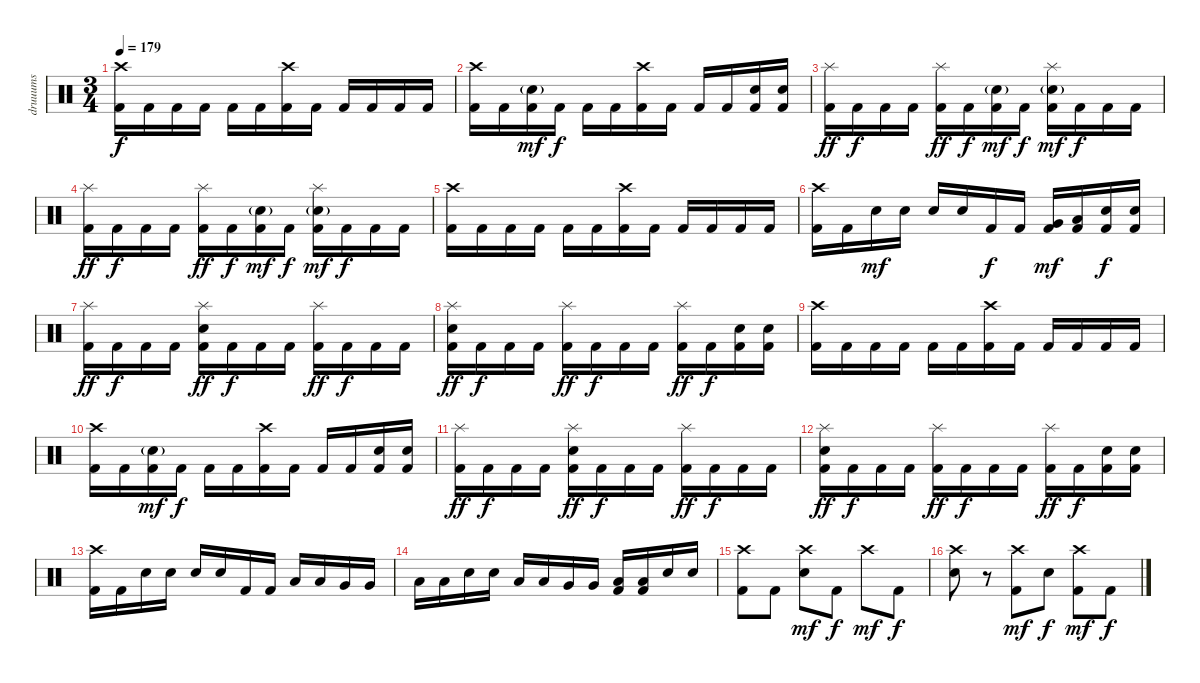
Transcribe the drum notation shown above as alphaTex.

\track ("druuums" "druuums") {instrument percussion}
\staff {score}
\articulation defaults
\ts (3 4)
\tempo 179
\clef neutral
\ks c
("Crash high (hit)" "Kick (hit) 2").16{dy f} "Kick (hit) 2".16 "Kick (hit) 2".16 "Kick (hit) 2".16 "Kick (hit) 2".16 "Kick (hit) 2".16 ("Crash high (hit)" "Kick (hit) 2").16 "Kick (hit) 2".16 "Kick (hit) 2".16 "Kick (hit) 2".16 "Kick (hit) 2".16 "Kick (hit) 2".16 |
("Crash high (hit)" "Kick (hit) 2").16 "Kick (hit) 2".16 ("Electric Snare (hit)"{g} "Kick (hit) 2").16{dy mf} "Kick (hit) 2".16{dy f} "Kick (hit) 2".16 "Kick (hit) 2".16 ("Crash high (hit)" "Kick (hit) 2").16 "Kick (hit) 2".16 "Kick (hit) 2".16 "Kick (hit) 2".16 ("Electric Snare (hit)" "Kick (hit) 2").16 ("Electric Snare (hit)" "Kick (hit) 2").16 |
("Splash (hit)" "Kick (hit) 2").16{dy ff} "Kick (hit) 2".16{dy f} "Kick (hit) 2".16 "Kick (hit) 2".16 ("Splash (hit)" "Kick (hit) 2").16{dy ff} "Kick (hit) 2".16{dy f} ("Electric Snare (hit)"{g} "Kick (hit) 2").16{dy mf} "Kick (hit) 2".16{dy f} ("Splash (hit)" "Electric Snare (hit)"{g} "Kick (hit) 2").16{dy mf} "Kick (hit) 2".16{dy f} "Kick (hit) 2".16 "Kick (hit) 2".16 |
("Splash (hit)" "Kick (hit) 2").16{dy ff} "Kick (hit) 2".16{dy f} "Kick (hit) 2".16 "Kick (hit) 2".16 ("Splash (hit)" "Kick (hit) 2").16{dy ff} "Kick (hit) 2".16{dy f} ("Electric Snare (hit)"{g} "Kick (hit) 2").16{dy mf} "Kick (hit) 2".16{dy f} ("Splash (hit)" "Electric Snare (hit)"{g} "Kick (hit) 2").16{dy mf} "Kick (hit) 2".16{dy f} "Kick (hit) 2".16 "Kick (hit) 2".16 |
("Crash high (hit)" "Kick (hit) 2").16 "Kick (hit) 2".16 "Kick (hit) 2".16 "Kick (hit) 2".16 "Kick (hit) 2".16 "Kick (hit) 2".16 ("Crash high (hit)" "Kick (hit) 2").16 "Kick (hit) 2".16 "Kick (hit) 2".16 "Kick (hit) 2".16 "Kick (hit) 2".16 "Kick (hit) 2".16 |
("Crash high (hit)" "Kick (hit) 2").16 "Kick (hit) 2".16 "Electric Snare (hit)".16{dy mf} "Electric Snare (hit)".16 "Electric Snare (hit)".16 "Electric Snare (hit)".16 "Kick (hit) 2".16{dy f} "Kick (hit) 2".16 ("Very Low Tom (hit)" "Kick (hit) 2").16{dy mf} ("Low Tom (hit)" "Kick (hit) 2").16 ("Electric Snare (hit)" "Kick (hit) 2").16{dy f} ("Electric Snare (hit)" "Kick (hit) 2").16 |
("Splash (hit)" "Kick (hit) 2").16{dy ff} "Kick (hit) 2".16{dy f} "Kick (hit) 2".16 "Kick (hit) 2".16 ("Splash (hit)" "Electric Snare (hit)" "Kick (hit) 2").16{dy ff} "Kick (hit) 2".16{dy f} "Kick (hit) 2".16 "Kick (hit) 2".16 ("Splash (hit)" "Kick (hit) 2").16{dy ff} "Kick (hit) 2".16{dy f} "Kick (hit) 2".16 "Kick (hit) 2".16 |
("Splash (hit)" "Electric Snare (hit)" "Kick (hit) 2").16{dy ff} "Kick (hit) 2".16{dy f} "Kick (hit) 2".16 "Kick (hit) 2".16 ("Splash (hit)" "Kick (hit) 2").16{dy ff} "Kick (hit) 2".16{dy f} "Kick (hit) 2".16 "Kick (hit) 2".16 ("Splash (hit)" "Kick (hit) 2").16{dy ff} "Kick (hit) 2".16{dy f} ("Electric Snare (hit)" "Kick (hit) 2").16 ("Electric Snare (hit)" "Kick (hit) 2").16 |
("Crash high (hit)" "Kick (hit) 2").16 "Kick (hit) 2".16 "Kick (hit) 2".16 "Kick (hit) 2".16 "Kick (hit) 2".16 "Kick (hit) 2".16 ("Crash high (hit)" "Kick (hit) 2").16 "Kick (hit) 2".16 "Kick (hit) 2".16 "Kick (hit) 2".16 "Kick (hit) 2".16 "Kick (hit) 2".16 |
("Crash high (hit)" "Kick (hit) 2").16 "Kick (hit) 2".16 ("Electric Snare (hit)"{g} "Kick (hit) 2").16{dy mf} "Kick (hit) 2".16{dy f} "Kick (hit) 2".16 "Kick (hit) 2".16 ("Crash high (hit)" "Kick (hit) 2").16 "Kick (hit) 2".16 "Kick (hit) 2".16 "Kick (hit) 2".16 ("Electric Snare (hit)" "Kick (hit) 2").16 ("Electric Snare (hit)" "Kick (hit) 2").16 |
("Splash (hit)" "Kick (hit) 2").16{dy ff} "Kick (hit) 2".16{dy f} "Kick (hit) 2".16 "Kick (hit) 2".16 ("Splash (hit)" "Electric Snare (hit)" "Kick (hit) 2").16{dy ff} "Kick (hit) 2".16{dy f} "Kick (hit) 2".16 "Kick (hit) 2".16 ("Splash (hit)" "Kick (hit) 2").16{dy ff} "Kick (hit) 2".16{dy f} "Kick (hit) 2".16 "Kick (hit) 2".16 |
("Splash (hit)" "Electric Snare (hit)" "Kick (hit) 2").16{dy ff} "Kick (hit) 2".16{dy f} "Kick (hit) 2".16 "Kick (hit) 2".16 ("Splash (hit)" "Kick (hit) 2").16{dy ff} "Kick (hit) 2".16{dy f} "Kick (hit) 2".16 "Kick (hit) 2".16 ("Splash (hit)" "Kick (hit) 2").16{dy ff} "Kick (hit) 2".16{dy f} ("Electric Snare (hit)" "Kick (hit) 2").16 ("Electric Snare (hit)" "Kick (hit) 2").16 |
("Crash high (hit)" "Kick (hit) 2").16 "Kick (hit) 2".16 "Electric Snare (hit)".16 "Electric Snare (hit)".16 "Electric Snare (hit)".16 "Electric Snare (hit)".16 "Kick (hit) 2".16 "Kick (hit) 2".16 "Low Tom (hit)".16 "Low Tom (hit)".16 "Very Low Tom (hit)".16 "Very Low Tom (hit)".16 |
"Low Floor Tom (hit)".16 "Low Floor Tom (hit)".16 "Electric Snare (hit)".16 "Electric Snare (hit)".16 "Low Tom (hit)".16 "Low Tom (hit)".16 "Very Low Tom (hit)".16 "Very Low Tom (hit)".16 ("Low Floor Tom (hit)" "Kick (hit) 2").16 ("Low Floor Tom (hit)" "Kick (hit) 2").16 "Electric Snare (hit)".16 "Electric Snare (hit)".16 |
("Crash high (hit)" "Kick (hit) 2").8 "Kick (hit) 2".8 ("Crash high (hit)" "Electric Snare (hit)").8{dy mf} "Kick (hit) 2".8{dy f} "Crash high (hit)".8{dy mf} "Kick (hit) 2".8{dy f} |
("Crash high (hit)" "Electric Snare (hit)").8 r.8 ("Crash high (hit)" "Kick (hit) 2").8{dy mf} "Electric Snare (hit)".8{dy f} ("Crash high (hit)" "Kick (hit) 2").8{dy mf} "Kick (hit) 2".8{dy f}
